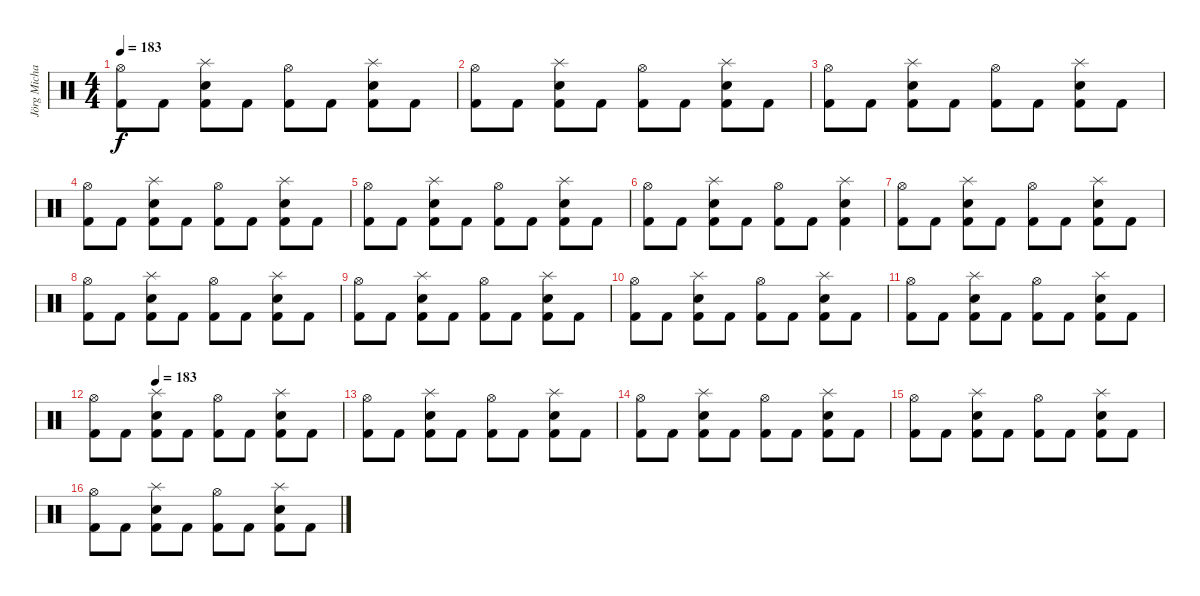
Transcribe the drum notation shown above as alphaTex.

\track ("Jörg Michael" "Jörg Micha") {instrument percussion}
\staff {score}
\articulation defaults
\ts (4 4)
\tempo 183
\clef neutral
\ks c
("Kick (hit) 2" "Hi-Hat (open)").8{dy f} "Kick (hit) 2".8 ("Snare (hit) 2" "Kick (hit) 2" "Splash (hit)").8 "Kick (hit) 2".8 ("Kick (hit) 2" "Hi-Hat (open)").8 "Kick (hit) 2".8 ("Snare (hit) 2" "Kick (hit) 2" "Splash (hit)").8 "Kick (hit) 2".8 |
("Kick (hit) 2" "Hi-Hat (open)").8 "Kick (hit) 2".8 ("Snare (hit) 2" "Kick (hit) 2" "Splash (hit)").8 "Kick (hit) 2".8 ("Kick (hit) 2" "Hi-Hat (open)").8 "Kick (hit) 2".8 ("Snare (hit) 2" "Kick (hit) 2" "Splash (hit)").8 "Kick (hit) 2".8 |
("Kick (hit) 2" "Hi-Hat (open)").8 "Kick (hit) 2".8 ("Snare (hit) 2" "Kick (hit) 2" "Splash (hit)").8 "Kick (hit) 2".8 ("Kick (hit) 2" "Hi-Hat (open)").8 "Kick (hit) 2".8 ("Snare (hit) 2" "Kick (hit) 2" "Splash (hit)").8 "Kick (hit) 2".8 |
("Kick (hit) 2" "Hi-Hat (open)").8 "Kick (hit) 2".8 ("Snare (hit) 2" "Kick (hit) 2" "Splash (hit)").8 "Kick (hit) 2".8 ("Kick (hit) 2" "Hi-Hat (open)").8 "Kick (hit) 2".8 ("Snare (hit) 2" "Kick (hit) 2" "Splash (hit)").8 "Kick (hit) 2".8 |
("Kick (hit) 2" "Hi-Hat (open)").8 "Kick (hit) 2".8 ("Snare (hit) 2" "Kick (hit) 2" "Splash (hit)").8 "Kick (hit) 2".8 ("Kick (hit) 2" "Hi-Hat (open)").8 "Kick (hit) 2".8 ("Snare (hit) 2" "Kick (hit) 2" "Splash (hit)").8 "Kick (hit) 2".8 |
("Kick (hit) 2" "Hi-Hat (open)").8 "Kick (hit) 2".8 ("Kick (hit) 2" "Snare (hit) 2" "Splash (hit)").8 "Kick (hit) 2".8 ("Kick (hit) 2" "Hi-Hat (open)").8 "Kick (hit) 2".8 ("Kick (hit) 2" "Snare (hit) 2" "Splash (hit)").4 |
("Kick (hit) 2" "Hi-Hat (open)").8 "Kick (hit) 2".8 ("Snare (hit) 2" "Kick (hit) 2" "Splash (hit)").8 "Kick (hit) 2".8 ("Kick (hit) 2" "Hi-Hat (open)").8 "Kick (hit) 2".8 ("Snare (hit) 2" "Kick (hit) 2" "Splash (hit)").8 "Kick (hit) 2".8 |
("Hi-Hat (open)" "Kick (hit) 2").8 "Kick (hit) 2".8 ("Snare (hit) 2" "Kick (hit) 2" "Splash (hit)").8 "Kick (hit) 2".8 ("Kick (hit) 2" "Hi-Hat (open)").8 "Kick (hit) 2".8 ("Snare (hit) 2" "Kick (hit) 2" "Splash (hit)").8 "Kick (hit) 2".8 |
("Kick (hit) 2" "Hi-Hat (open)").8 "Kick (hit) 2".8 ("Snare (hit) 2" "Kick (hit) 2" "Splash (hit)").8 "Kick (hit) 2".8 ("Kick (hit) 2" "Hi-Hat (open)").8 "Kick (hit) 2".8 ("Snare (hit) 2" "Kick (hit) 2" "Splash (hit)").8 "Kick (hit) 2".8 |
("Hi-Hat (open)" "Kick (hit) 2").8 "Kick (hit) 2".8 ("Snare (hit) 2" "Kick (hit) 2" "Splash (hit)").8 "Kick (hit) 2".8 ("Kick (hit) 2" "Hi-Hat (open)").8 "Kick (hit) 2".8 ("Snare (hit) 2" "Kick (hit) 2" "Splash (hit)").8 "Kick (hit) 2".8 |
("Kick (hit) 2" "Hi-Hat (open)").8 "Kick (hit) 2".8 ("Snare (hit) 2" "Kick (hit) 2" "Splash (hit)").8 "Kick (hit) 2".8 ("Kick (hit) 2" "Hi-Hat (open)").8 "Kick (hit) 2".8 ("Snare (hit) 2" "Kick (hit) 2" "Splash (hit)").8 "Kick (hit) 2".8 |
\tempo (183 0.25)
("Hi-Hat (open)" "Kick (hit) 2").8 "Kick (hit) 2".8 ("Snare (hit) 2" "Kick (hit) 2" "Splash (hit)").8 "Kick (hit) 2".8 ("Kick (hit) 2" "Hi-Hat (open)").8 "Kick (hit) 2".8 ("Snare (hit) 2" "Kick (hit) 2" "Splash (hit)").8 "Kick (hit) 2".8 |
("Kick (hit) 2" "Hi-Hat (open)").8 "Kick (hit) 2".8 ("Snare (hit) 2" "Kick (hit) 2" "Splash (hit)").8 "Kick (hit) 2".8 ("Kick (hit) 2" "Hi-Hat (open)").8 "Kick (hit) 2".8 ("Snare (hit) 2" "Kick (hit) 2" "Splash (hit)").8 "Kick (hit) 2".8 |
("Hi-Hat (open)" "Kick (hit) 2").8 "Kick (hit) 2".8{volume 16} ("Snare (hit) 2" "Kick (hit) 2" "Splash (hit)").8{volume 16} "Kick (hit) 2".8{volume 15} ("Kick (hit) 2" "Hi-Hat (open)").8{volume 15} "Kick (hit) 2".8{volume 15} ("Snare (hit) 2" "Kick (hit) 2" "Splash (hit)").8{volume 15} "Kick (hit) 2".8{volume 14} |
("Kick (hit) 2" "Hi-Hat (open)").8{volume 14} "Kick (hit) 2".8{volume 14} ("Snare (hit) 2" "Kick (hit) 2" "Splash (hit)").8{volume 14} "Kick (hit) 2".8{volume 14} ("Kick (hit) 2" "Hi-Hat (open)").8{volume 13} "Kick (hit) 2".8{volume 13} ("Snare (hit) 2" "Kick (hit) 2" "Splash (hit)").8{volume 13} "Kick (hit) 2".8{volume 13} |
("Hi-Hat (open)" "Kick (hit) 2").8{volume 12} "Kick (hit) 2".8{volume 12} ("Snare (hit) 2" "Kick (hit) 2" "Splash (hit)").8{volume 12} "Kick (hit) 2".8{volume 12} ("Kick (hit) 2" "Hi-Hat (open)").8{volume 12} "Kick (hit) 2".8{volume 11} ("Snare (hit) 2" "Kick (hit) 2" "Splash (hit)").8{volume 11} "Kick (hit) 2".8{volume 11}
